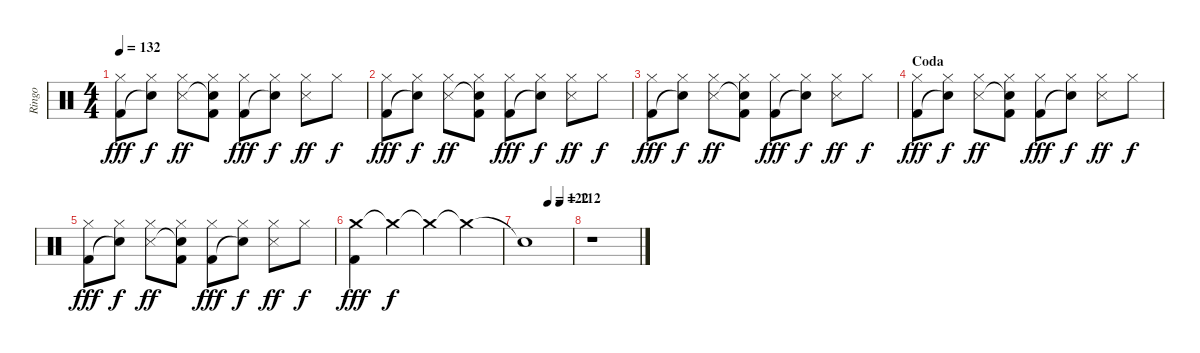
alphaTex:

\track ("Ringo" "Ringo") {instrument percussion}
\staff {score}
\articulation defaults
\ts (4 4)
\tempo 132
\clef neutral
\ks c
("Hi-Hat (closed)" "Kick (hit) 2").8{dy fff} ("Hi-Hat (closed)" "Snare (hit)"{t}).8{dy f} ("Hi-Hat (closed)" "Snare (side stick) 3").8{dy ff} ("Hi-Hat (closed)" "Snare (hit)"{t} "Kick (hit) 2").8 ("Hi-Hat (closed)" "Kick (hit) 2").8{dy fff} ("Hi-Hat (closed)" "Snare (hit)"{t}).8{dy f} ("Hi-Hat (closed)" "Snare (side stick) 3").8{dy ff} "Hi-Hat (closed)".8{dy f} |
("Hi-Hat (closed)" "Kick (hit) 2").8{dy fff} ("Hi-Hat (closed)" "Snare (hit)"{t}).8{dy f} ("Hi-Hat (closed)" "Snare (side stick) 3").8{dy ff} ("Hi-Hat (closed)" "Snare (hit)"{t} "Kick (hit) 2").8 ("Hi-Hat (closed)" "Kick (hit) 2").8{dy fff} ("Hi-Hat (closed)" "Snare (hit)"{t}).8{dy f} ("Hi-Hat (closed)" "Snare (side stick) 3").8{dy ff} "Hi-Hat (closed)".8{dy f} |
("Hi-Hat (closed)" "Kick (hit) 2").8{dy fff} ("Hi-Hat (closed)" "Snare (hit)"{t}).8{dy f} ("Hi-Hat (closed)" "Snare (side stick) 3").8{dy ff} ("Hi-Hat (closed)" "Snare (hit)"{t} "Kick (hit) 2").8 ("Hi-Hat (closed)" "Kick (hit) 2").8{dy fff} ("Hi-Hat (closed)" "Snare (hit)"{t}).8{dy f} ("Hi-Hat (closed)" "Snare (side stick) 3").8{dy ff} "Hi-Hat (closed)".8{dy f} |
\section ("" "Coda")
("Hi-Hat (closed)" "Kick (hit) 2").8{dy fff} ("Hi-Hat (closed)" "Snare (hit)"{t}).8{dy f} ("Hi-Hat (closed)" "Snare (side stick) 3").8{dy ff} ("Hi-Hat (closed)" "Snare (hit)"{t} "Kick (hit) 2").8 ("Hi-Hat (closed)" "Kick (hit) 2").8{dy fff} ("Hi-Hat (closed)" "Snare (hit)"{t}).8{dy f} ("Hi-Hat (closed)" "Snare (side stick) 3").8{dy ff} "Hi-Hat (closed)".8{dy f} |
("Hi-Hat (closed)" "Kick (hit) 2").8{dy fff} ("Hi-Hat (closed)" "Snare (hit)"{t}).8{dy f} ("Hi-Hat (closed)" "Snare (side stick) 3").8{dy ff} ("Hi-Hat (closed)" "Snare (hit)"{t} "Kick (hit) 2").8 ("Hi-Hat (closed)" "Kick (hit) 2").8{dy fff} ("Hi-Hat (closed)" "Snare (hit)"{t}).8{dy f} ("Hi-Hat (closed)" "Snare (side stick) 3").8{dy ff} "Hi-Hat (closed)".8{dy f} |
("Crash medium (hit)" "Kick (hit) 2").4{dy fff} "Crash medium (hit)"{t}.4{dy f} "Crash medium (hit)"{t}.4 "Crash medium (hit)"{t}.4 |
\tempo (122 0.5)
\tempo (112 0.75)
"Snare (hit)"{t}.1 |
r.1
